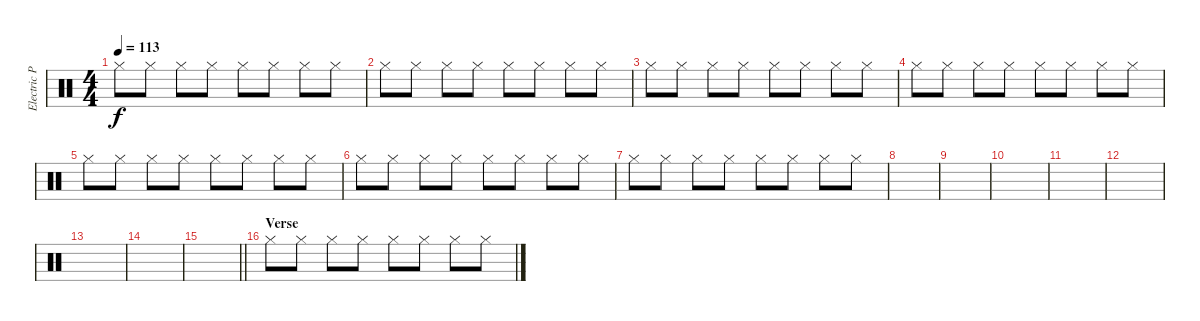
\track ("Electric Percussion" "Electric P") {instrument percussion bank 3}
\staff {score}
\articulation defaults
\ts (4 4)
\tempo 113
\clef neutral
\ks c "Hi-Hat (closed)".8{dy f} "Hi-Hat (closed)".8 "Hi-Hat (closed)".8 "Hi-Hat (closed)".8 "Hi-Hat (closed)".8 "Hi-Hat (closed)".8 "Hi-Hat (closed)".8 "Hi-Hat (closed)".8
|
"Hi-Hat (closed)".8 "Hi-Hat (closed)".8 "Hi-Hat (closed)".8 "Hi-Hat (closed)".8 "Hi-Hat (closed)".8 "Hi-Hat (closed)".8 "Hi-Hat (closed)".8 "Hi-Hat (closed)".8 |
"Hi-Hat (closed)".8 "Hi-Hat (closed)".8 "Hi-Hat (closed)".8 "Hi-Hat (closed)".8 "Hi-Hat (closed)".8 "Hi-Hat (closed)".8 "Hi-Hat (closed)".8 "Hi-Hat (closed)".8 |
"Hi-Hat (closed)".8 "Hi-Hat (closed)".8 "Hi-Hat (closed)".8 "Hi-Hat (closed)".8 "Hi-Hat (closed)".8 "Hi-Hat (closed)".8 "Hi-Hat (closed)".8 "Hi-Hat (closed)".8 |
"Hi-Hat (closed)".8 "Hi-Hat (closed)".8 "Hi-Hat (closed)".8 "Hi-Hat (closed)".8 "Hi-Hat (closed)".8 "Hi-Hat (closed)".8 "Hi-Hat (closed)".8 "Hi-Hat (closed)".8 |
"Hi-Hat (closed)".8 "Hi-Hat (closed)".8 "Hi-Hat (closed)".8 "Hi-Hat (closed)".8 "Hi-Hat (closed)".8 "Hi-Hat (closed)".8 "Hi-Hat (closed)".8 "Hi-Hat (closed)".8 |
"Hi-Hat (closed)".8 "Hi-Hat (closed)".8 "Hi-Hat (closed)".8 "Hi-Hat (closed)".8 "Hi-Hat (closed)".8 "Hi-Hat (closed)".8 "Hi-Hat (closed)".8 "Hi-Hat (closed)".8 |
|
|
|
|
|
|
|
\barLineRight lightlight
|
\section ("" "Verse")
"Hi-Hat (closed)".8 "Hi-Hat (closed)".8 "Hi-Hat (closed)".8 "Hi-Hat (closed)".8 "Hi-Hat (closed)".8 "Hi-Hat (closed)".8 "Hi-Hat (closed)".8 "Hi-Hat (closed)".8
